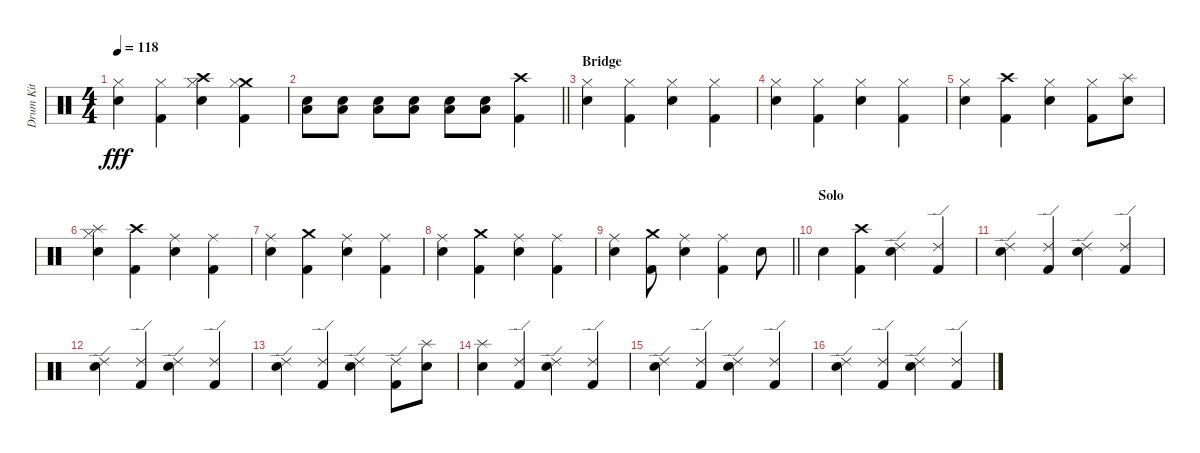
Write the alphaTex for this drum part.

\track ("Drum Kit" "Drum Kit") {instrument percussion}
\staff {score}
\articulation defaults
\ts (4 4)
\tempo 118
\clef neutral
\ks c
("Hi-Hat (closed)" "Electric Snare (hit)").4{dy fff} ("Kick (hit) 2" "Hi-Hat (closed)").4 ("Crash high (hit)" "Electric Snare (hit)" "Hi-Hat (closed)").4 ("Crash medium (hit)" "Kick (hit) 2" "Hi-Hat (closed)").4 |
\barLineRight lightlight
("Low Floor Tom (hit)" "Snare (hit) 2").8 ("Snare (hit) 2" "Low Floor Tom (hit)").8 ("Low Floor Tom (hit)" "Snare (hit) 2").8 ("Snare (hit) 2" "Low Floor Tom (hit)").8 ("Snare (hit) 2" "Low Floor Tom (hit)").8 ("Snare (hit) 2" "Low Floor Tom (hit)").8 ("Crash high (hit)" "Kick (hit) 2").4 |
\section ("" "Bridge")
("Electric Snare (hit)" "Hi-Hat (closed)").4 ("Hi-Hat (closed)" "Kick (hit) 2").4 ("Hi-Hat (closed)" "Electric Snare (hit)").4 ("Kick (hit) 2" "Hi-Hat (closed)").4 |
("Electric Snare (hit)" "Hi-Hat (closed)").4 ("Kick (hit) 2" "Hi-Hat (closed)").4 ("Electric Snare (hit)" "Hi-Hat (closed)").4 ("Hi-Hat (closed)" "Kick (hit) 2").4 |
("Electric Snare (hit)" "Hi-Hat (closed)").4 ("Crash high (hit)" "Kick (hit) 2").4 ("Hi-Hat (closed)" "Electric Snare (hit)").4 ("Kick (hit) 2" "Hi-Hat (closed)").8 ("Splash (hit)" "Electric Snare (hit)").8 |
("Splash (hit)" "Hi-Hat (closed)" "Electric Snare (hit)").4 ("Kick (hit) 2" "Crash high (hit)").4 ("Electric Snare (hit)" "Ride (middle)").4 ("Kick (hit) 2" "Ride (middle)").4 |
("Ride (middle)" "Electric Snare (hit)").4 ("Kick (hit) 2" "Crash medium (hit)").4 ("Electric Snare (hit)" "Ride (middle)").4 ("Kick (hit) 2" "Ride (middle)").4 |
("Ride (middle)" "Electric Snare (hit)").4 ("Kick (hit) 2" "Crash medium (hit)").4 ("Electric Snare (hit)" "Ride (middle)").4 ("Kick (hit) 2" "Ride (middle)").4 |
\barLineRight lightlight
("Electric Snare (hit)" "Ride (middle)").4 ("Kick (hit) 2" "Crash medium (hit)").8 ("Electric Snare (hit)" "Ride (middle)").4 ("Kick (hit) 2" "Ride (middle)").4 "Electric Snare (hit)".8 |
\section ("" "Solo")
"Electric Snare (hit)".4 ("Kick (hit) 2" "Crash high (hit)").4 ("Electric Snare (hit)" "Ride (edge) 2").4 ("Ride (edge) 2" "Kick (hit) 2").4 |
("Ride (edge) 2" "Electric Snare (hit)").4 ("Kick (hit) 2" "Ride (edge) 2").4 ("Electric Snare (hit)" "Ride (edge) 2").4 ("Ride (edge) 2" "Kick (hit) 2").4 |
("Electric Snare (hit)" "Ride (edge) 2").4 ("Ride (edge) 2" "Kick (hit) 2").4 ("Ride (edge) 2" "Electric Snare (hit)").4 ("Kick (hit) 2" "Ride (edge) 2").4 |
("Ride (edge) 2" "Electric Snare (hit)").4 ("Ride (edge) 2" "Kick (hit) 2").4 ("Ride (edge) 2" "Electric Snare (hit)").4 ("Ride (edge) 2" "Kick (hit) 2").8 ("Splash (hit)" "Electric Snare (hit)").8 |
("Splash (hit)" "Electric Snare (hit)").4 ("Kick (hit) 2" "Ride (edge) 2").4 ("Electric Snare (hit)" "Ride (edge) 2").4 ("Ride (edge) 2" "Kick (hit) 2").4 |
("Electric Snare (hit)" "Ride (edge) 2").4 ("Kick (hit) 2" "Ride (edge) 2").4 ("Electric Snare (hit)" "Ride (edge) 2").4 ("Ride (edge) 2" "Kick (hit) 2").4 |
("Electric Snare (hit)" "Ride (edge) 2").4 ("Kick (hit) 2" "Ride (edge) 2").4 ("Ride (edge) 2" "Electric Snare (hit)").4 ("Ride (edge) 2" "Kick (hit) 2").4
